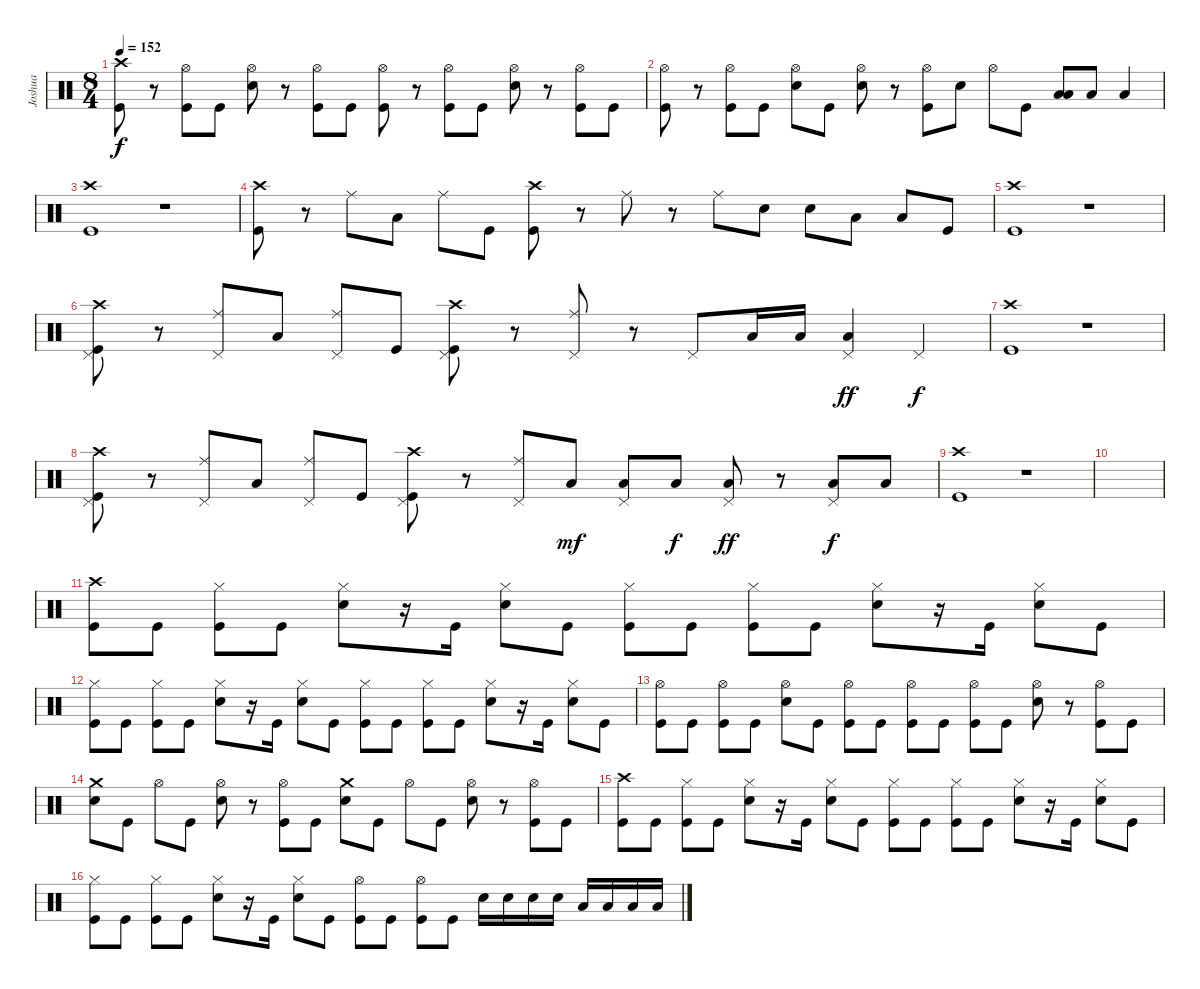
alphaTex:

\track ("Joshua" "Joshua") {instrument percussion}
\staff {score}
\articulation defaults
\ts (8 4)
\tempo 152
\clef neutral
\ks c
("Crash high (hit)" "Kick (hit)").8{dy f} r.8 ("Hi-Hat (open)" "Kick (hit)").8 "Kick (hit)".8 ("Hi-Hat (open)" "Electric Snare (hit)").8 r.8 ("Hi-Hat (open)" "Kick (hit)").8 "Kick (hit)".8 ("Hi-Hat (open)" "Kick (hit)").8 r.8 ("Hi-Hat (open)" "Kick (hit)").8 "Kick (hit)".8 ("Hi-Hat (open)" "Electric Snare (hit)").8 r.8 ("Hi-Hat (open)" "Kick (hit)").8 "Kick (hit)".8 |
("Hi-Hat (open)" "Kick (hit)").8 r.8 ("Hi-Hat (open)" "Kick (hit)").8 "Kick (hit)".8 ("Hi-Hat (open)" "Electric Snare (hit)").8 "Kick (hit)".8 ("Hi-Hat (open)" "Electric Snare (hit)").8 r.8 ("Hi-Hat (open)" "Kick (hit)").8 "Electric Snare (hit)".8 "Hi-Hat (open)".8 "Kick (hit)".8 ("Low Tom (hit)" "Low Tom (hit)").8 "Low Floor Tom (hit)".8 "Low Floor Tom (hit)".4 |
("Crash high (hit)" "Kick (hit)").1 r.1 |
("Crash high (hit)" "Kick (hit)").8 r.8 "Ride (middle)".8 "Low Tom (hit)".8 "Ride (middle)".8 "Kick (hit)".8 ("Crash high (hit)" "Kick (hit)").8 r.8 "Ride (middle)".8 r.8 "Ride (middle)".8 "Electric Snare (hit)".8 "Electric Snare (hit)".8 "Low Tom (hit)".8 "Low Tom (hit)".8 "Kick (hit)".8 |
("Crash high (hit)" "Kick (hit)").1 r.1 |
("Crash high (hit)" "Pedal Hi-Hat (hit)" "Kick (hit)").8 r.8 ("Ride (middle)" "Pedal Hi-Hat (hit)").8 "Low Tom (hit)".8 ("Ride (middle)" "Pedal Hi-Hat (hit)").8 "Kick (hit)".8 ("Crash high (hit)" "Pedal Hi-Hat (hit)" "Kick (hit)").8 r.8 ("Ride (middle)" "Pedal Hi-Hat (hit)").8 r.8 "Pedal Hi-Hat (hit)".8 "Low Floor Tom (hit)".16 "Low Floor Tom (hit)".16 ("Low Floor Tom (hit)" "Pedal Hi-Hat (hit)").4{dy ff} "Pedal Hi-Hat (hit)".4{dy f} |
("Crash high (hit)" "Kick (hit)").1 r.1 |
("Crash high (hit)" "Pedal Hi-Hat (hit)" "Kick (hit)").8 r.8 ("Ride (middle)" "Pedal Hi-Hat (hit)").8 "Low Tom (hit)".8 ("Ride (middle)" "Pedal Hi-Hat (hit)").8 "Kick (hit)".8 ("Crash high (hit)" "Pedal Hi-Hat (hit)" "Kick (hit)").8 r.8 ("Ride (middle)" "Pedal Hi-Hat (hit)").8 "Low Tom (hit)".8{dy mf} ("Low Tom (hit)" "Pedal Hi-Hat (hit)").8 "Low Tom (hit)".8{dy f} ("Low Tom (hit)" "Pedal Hi-Hat (hit)").8{dy ff} r.8 ("Low Floor Tom (hit)" "Pedal Hi-Hat (hit)").8{dy f} "Low Floor Tom (hit)".8 |
("Crash high (hit)" "Kick (hit)").1 r.1 |
|
("Crash high (hit)" "Kick (hit)").8 "Kick (hit)".8 ("Hi-Hat (closed)" "Kick (hit)").8 "Kick (hit)".8 ("Hi-Hat (closed)" "Electric Snare (hit)").8 r.16 "Kick (hit)".16 ("Hi-Hat (closed)" "Electric Snare (hit)").8 "Kick (hit)".8 ("Hi-Hat (closed)" "Kick (hit)").8 "Kick (hit)".8 ("Hi-Hat (closed)" "Kick (hit)").8 "Kick (hit)".8 ("Hi-Hat (closed)" "Electric Snare (hit)").8 r.16 "Kick (hit)".16 ("Hi-Hat (closed)" "Electric Snare (hit)").8 "Kick (hit)".8 |
("Hi-Hat (closed)" "Kick (hit)").8 "Kick (hit)".8 ("Hi-Hat (closed)" "Kick (hit)").8 "Kick (hit)".8 ("Hi-Hat (closed)" "Electric Snare (hit)").8 r.16 "Kick (hit)".16 ("Hi-Hat (closed)" "Electric Snare (hit)").8 "Kick (hit)".8 ("Hi-Hat (closed)" "Kick (hit)").8 "Kick (hit)".8 ("Hi-Hat (closed)" "Kick (hit)").8 "Kick (hit)".8 ("Hi-Hat (closed)" "Electric Snare (hit)").8 r.16 "Kick (hit)".16 ("Hi-Hat (closed)" "Electric Snare (hit)").8 "Kick (hit)".8 |
("Hi-Hat (open)" "Kick (hit)").8 "Kick (hit)".8 ("Hi-Hat (open)" "Kick (hit)").8 "Kick (hit)".8 ("Hi-Hat (open)" "Electric Snare (hit)").8 "Kick (hit)".8 ("Hi-Hat (open)" "Kick (hit)").8 "Kick (hit)".8 ("Hi-Hat (open)" "Kick (hit)").8 "Kick (hit)".8 ("Hi-Hat (open)" "Kick (hit)").8 "Kick (hit)".8 ("Hi-Hat (open)" "Electric Snare (hit)").8 r.8 ("Hi-Hat (open)" "Kick (hit)").8 "Kick (hit)".8 |
("Crash medium (hit)" "Electric Snare (hit)").8 "Kick (hit)".8 "Hi-Hat (open)".8 "Kick (hit)".8 ("Hi-Hat (open)" "Electric Snare (hit)").8 r.8 ("Hi-Hat (open)" "Kick (hit)").8 "Kick (hit)".8 ("Crash medium (hit)" "Electric Snare (hit)").8 "Kick (hit)".8 "Hi-Hat (open)".8 "Kick (hit)".8 ("Hi-Hat (open)" "Electric Snare (hit)").8 r.8 ("Hi-Hat (open)" "Kick (hit)").8 "Kick (hit)".8 |
("Crash high (hit)" "Kick (hit)").8 "Kick (hit)".8 ("Hi-Hat (closed)" "Kick (hit)").8 "Kick (hit)".8 ("Hi-Hat (closed)" "Electric Snare (hit)").8 r.16 "Kick (hit)".16 ("Hi-Hat (closed)" "Electric Snare (hit)").8 "Kick (hit)".8 ("Hi-Hat (closed)" "Kick (hit)").8 "Kick (hit)".8 ("Hi-Hat (closed)" "Kick (hit)").8 "Kick (hit)".8 ("Hi-Hat (closed)" "Electric Snare (hit)").8 r.16 "Kick (hit)".16 ("Hi-Hat (closed)" "Electric Snare (hit)").8 "Kick (hit)".8 |
("Hi-Hat (closed)" "Kick (hit)").8 "Kick (hit)".8 ("Hi-Hat (closed)" "Kick (hit)").8 "Kick (hit)".8 ("Hi-Hat (closed)" "Electric Snare (hit)").8 r.16 "Kick (hit)".16 ("Hi-Hat (closed)" "Electric Snare (hit)").8 "Kick (hit)".8 ("Hi-Hat (open)" "Kick (hit)").8 "Kick (hit)".8 ("Hi-Hat (open)" "Kick (hit)").8 "Kick (hit)".8 "Electric Snare (hit)".16 "Electric Snare (hit)".16 "Electric Snare (hit)".16 "Electric Snare (hit)".16 "Low Tom (hit)".16 "Low Tom (hit)".16 "Low Floor Tom (hit)".16 "Low Floor Tom (hit)".16
